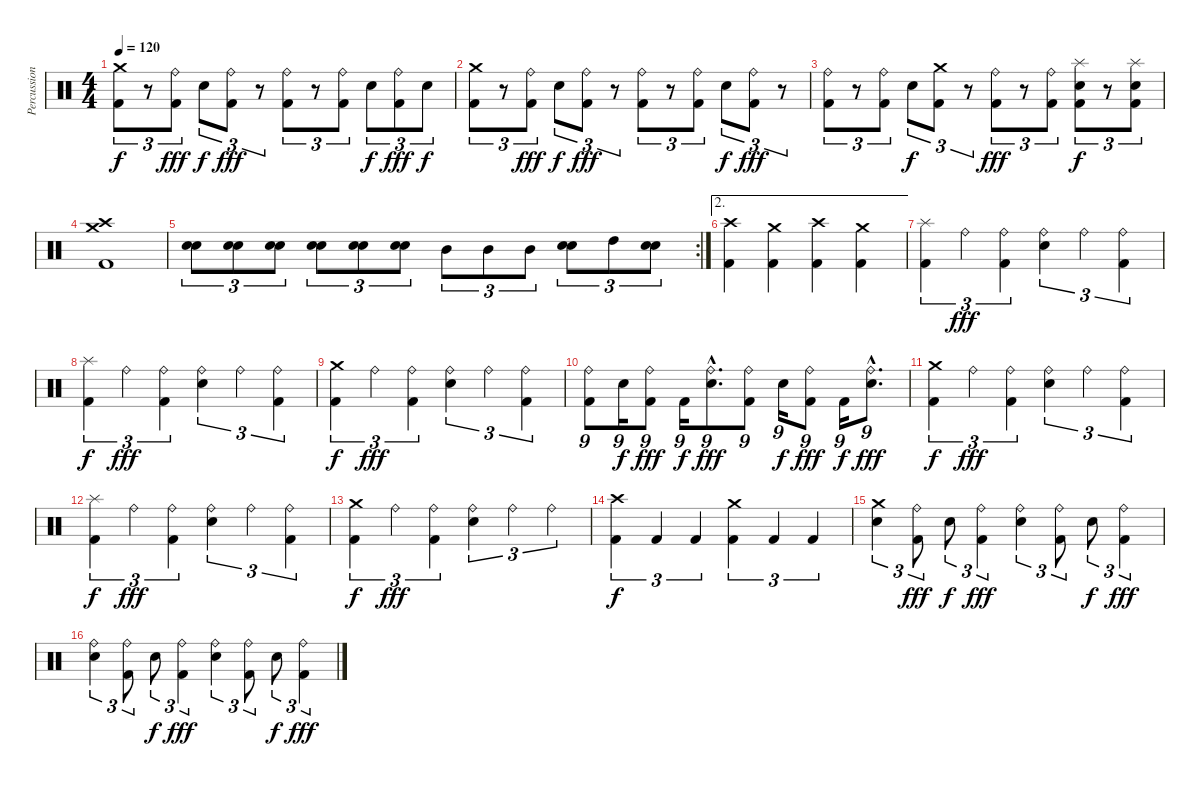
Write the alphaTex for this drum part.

\track ("Percussions" "Percussion") {instrument percussion}
\staff {score}
\articulation defaults
\ts (4 4)
\tempo 120
\clef neutral
\ks c
("Kick (hit) 2" "Crash medium (hit)").8{tu (3 2) dy f} r.8{tu (3 2)} ("Kick (hit) 2" "Ride (bell)").8{tu (3 2) dy fff} "Electric Snare (hit)".8{tu (3 2) dy f} ("Kick (hit) 2" "Ride (bell)").8{tu (3 2) dy fff} r.8{tu (3 2)} ("Kick (hit) 2" "Ride (bell)").8{tu (3 2)} r.8{tu (3 2)} ("Kick (hit) 2" "Ride (bell)").8{tu (3 2)} "Electric Snare (hit)".8{tu (3 2) dy f} ("Kick (hit) 2" "Ride (bell)").8{tu (3 2) dy fff} "Electric Snare (hit)".8{tu (3 2) dy f} |
("Kick (hit) 2" "Crash medium (hit)").8{tu (3 2)} r.8{tu (3 2)} ("Kick (hit) 2" "Ride (bell)").8{tu (3 2) dy fff} "Electric Snare (hit)".8{tu (3 2) dy f} ("Kick (hit) 2" "Ride (bell)").8{tu (3 2) dy fff} r.8{tu (3 2)} ("Kick (hit) 2" "Ride (bell)").8{tu (3 2)} r.8{tu (3 2)} ("Kick (hit) 2" "Ride (bell)").8{tu (3 2)} "Electric Snare (hit)".8{tu (3 2) dy f} ("Kick (hit) 2" "Ride (bell)").8{tu (3 2) dy fff} r.8{tu (3 2)} |
("Kick (hit) 2" "Ride (bell)").8{tu (3 2)} r.8{tu (3 2)} ("Kick (hit) 2" "Ride (bell)").8{tu (3 2)} "Electric Snare (hit)".8{tu (3 2) dy f} ("Kick (hit) 2" "Crash medium (hit)").8{tu (3 2)} r.8{tu (3 2)} ("Kick (hit) 2" "Ride (bell)").8{tu (3 2) dy fff} r.8{tu (3 2)} ("Kick (hit) 2" "Ride (bell)").8{tu (3 2)} ("Kick (hit) 2" "Electric Snare (hit)" "Splash (hit)").8{tu (3 2) dy f} r.8{tu (3 2)} ("Kick (hit) 2" "Electric Snare (hit)" "Splash (hit)").8{tu (3 2)} |
("Kick (hit) 2" "Crash medium (hit)" "Crash high (hit)").1 |
\rc 2
("Snare (hit) 2" "Electric Snare (hit)").8{tu (3 2)} ("Snare (hit) 2" "Electric Snare (hit)").8{tu (3 2)} ("Snare (hit) 2" "Electric Snare (hit)").8{tu (3 2)} ("Snare (hit) 2" "Electric Snare (hit)").8{tu (3 2)} ("Snare (hit) 2" "Electric Snare (hit)").8{tu (3 2)} ("Snare (hit) 2" "Electric Snare (hit)").8{tu (3 2)} "Mid Tom (hit)".8{tu (3 2)} "Mid Tom (hit)".8{tu (3 2)} "Mid Tom (hit)".8{tu (3 2)} ("Snare (hit) 2" "Electric Snare (hit)").8{tu (3 2)} "High Tom (hit)".8{tu (3 2)} ("Snare (hit) 2" "Electric Snare (hit)").8{tu (3 2)} |
\ae 2
("Kick (hit) 2" "Crash high (hit)").4 ("Kick (hit) 2" "Crash medium (hit)").4 ("Kick (hit) 2" "Crash high (hit)").4 ("Kick (hit) 2" "Crash medium (hit)").4 |
("Kick (hit) 2" "Splash (hit)").4{tu (3 2)} "Ride (bell)".4{tu (3 2) dy fff} ("Kick (hit) 2" "Ride (bell)").4{tu (3 2)} ("Electric Snare (hit)" "Ride (bell)").4{tu (3 2)} "Ride (bell)".4{tu (3 2)} ("Kick (hit) 2" "Ride (bell)").4{tu (3 2)} |
("Kick (hit) 2" "Splash (hit)").4{tu (3 2) dy f} "Ride (bell)".4{tu (3 2) dy fff} ("Kick (hit) 2" "Ride (bell)").4{tu (3 2)} ("Electric Snare (hit)" "Ride (bell)").4{tu (3 2)} "Ride (bell)".4{tu (3 2)} ("Kick (hit) 2" "Ride (bell)").4{tu (3 2)} |
("Kick (hit) 2" "Crash medium (hit)").4{tu (3 2) dy f} "Ride (bell)".4{tu (3 2) dy fff} ("Kick (hit) 2" "Ride (bell)").4{tu (3 2)} ("Electric Snare (hit)" "Ride (bell)").4{tu (3 2)} "Ride (bell)".4{tu (3 2)} ("Kick (hit) 2" "Ride (bell)").4{tu (3 2)} |
("Kick (hit) 2" "Ride (bell)").8{tu (9 8)} "Electric Snare (hit)".16{tu (9 8) dy f} ("Kick (hit) 2" "Ride (bell)").8{tu (9 8) dy fff} "Kick (hit) 2".16{tu (9 8) dy f} ("Electric Snare (hit)"{hac} "Ride (bell)"{hac}).8{d tu (9 8) dy fff} ("Kick (hit) 2" "Ride (bell)").8{tu (9 8)} "Electric Snare (hit)".16{tu (9 8) dy f} ("Kick (hit) 2" "Ride (bell)").8{tu (9 8) dy fff} "Kick (hit) 2".16{tu (9 8) dy f} ("Electric Snare (hit)"{hac} "Ride (bell)"{hac}).8{d tu (9 8) dy fff} |
("Kick (hit) 2" "Crash medium (hit)").4{tu (3 2) dy f} "Ride (bell)".4{tu (3 2) dy fff} ("Kick (hit) 2" "Ride (bell)").4{tu (3 2)} ("Electric Snare (hit)" "Ride (bell)").4{tu (3 2)} "Ride (bell)".4{tu (3 2)} ("Kick (hit) 2" "Ride (bell)").4{tu (3 2)} |
("Kick (hit) 2" "Splash (hit)").4{tu (3 2) dy f} "Ride (bell)".4{tu (3 2) dy fff} ("Kick (hit) 2" "Ride (bell)").4{tu (3 2)} ("Electric Snare (hit)" "Ride (bell)").4{tu (3 2)} "Ride (bell)".4{tu (3 2)} ("Kick (hit) 2" "Ride (bell)").4{tu (3 2)} |
("Kick (hit) 2" "Crash medium (hit)").4{tu (3 2) dy f} "Ride (bell)".4{tu (3 2) dy fff} ("Kick (hit) 2" "Ride (bell)").4{tu (3 2)} ("Electric Snare (hit)" "Ride (bell)").4{tu (3 2)} "Ride (bell)".4{tu (3 2)} "Ride (bell)".4{tu (3 2)} |
("Kick (hit) 2" "Crash high (hit)").4{tu (3 2) dy f} "Kick (hit) 2".4{tu (3 2)} "Kick (hit) 2".4{tu (3 2)} ("Kick (hit) 2" "Crash medium (hit)").4{tu (3 2)} "Kick (hit) 2".4{tu (3 2)} "Kick (hit) 2".4{tu (3 2)} |
("Electric Snare (hit)" "Crash medium (hit)").4{tu (3 2)} ("Kick (hit) 2" "Ride (bell)").8{tu (3 2) dy fff} "Electric Snare (hit)".8{tu (3 2) dy f} ("Kick (hit) 2" "Ride (bell)").4{tu (3 2) dy fff} ("Electric Snare (hit)" "Ride (bell)").4{tu (3 2)} ("Kick (hit) 2" "Ride (bell)").8{tu (3 2)} "Electric Snare (hit)".8{tu (3 2) dy f} ("Kick (hit) 2" "Ride (bell)").4{tu (3 2) dy fff} |
("Electric Snare (hit)" "Ride (bell)").4{tu (3 2)} ("Kick (hit) 2" "Ride (bell)").8{tu (3 2)} "Electric Snare (hit)".8{tu (3 2) dy f} ("Kick (hit) 2" "Ride (bell)").4{tu (3 2) dy fff} ("Electric Snare (hit)" "Ride (bell)").4{tu (3 2)} ("Kick (hit) 2" "Ride (bell)").8{tu (3 2)} "Electric Snare (hit)".8{tu (3 2) dy f} ("Kick (hit) 2" "Ride (bell)").4{tu (3 2) dy fff}
